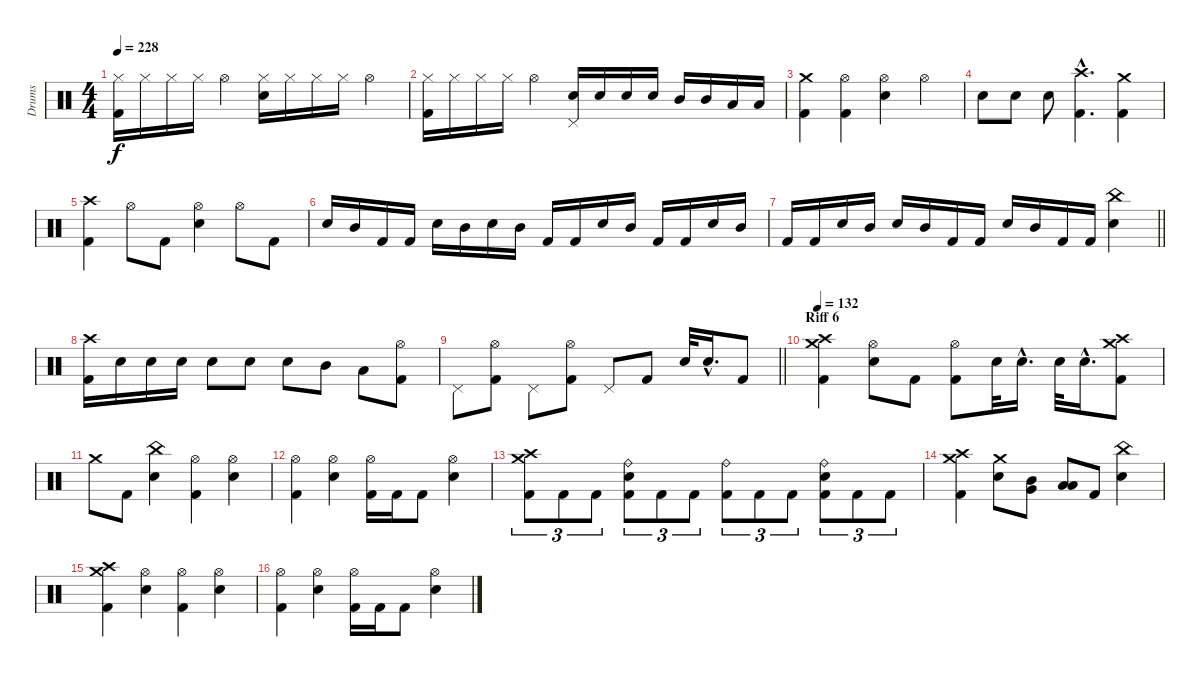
\track ("Drums" "Drums") {instrument percussion}
\staff {score}
\articulation defaults
\ts (4 4)
\tempo 228
\clef neutral
\ks c
("Hi-Hat (closed)" "Kick (hit) 2").16{dy f} "Hi-Hat (closed)".16 "Hi-Hat (closed)".16 "Hi-Hat (closed)".16 "Hi-Hat (open)".4 ("Hi-Hat (closed)" "Electric Snare (hit)").16 "Hi-Hat (closed)".16 "Hi-Hat (closed)".16 "Hi-Hat (closed)".16 "Hi-Hat (open)".4 |
("Hi-Hat (closed)" "Kick (hit) 2").16 "Hi-Hat (closed)".16 "Hi-Hat (closed)".16 "Hi-Hat (closed)".16 "Hi-Hat (open)".4 ("Pedal Hi-Hat (hit)" "Electric Snare (hit)").16 "Electric Snare (hit)".16 "Electric Snare (hit)".16 "Electric Snare (hit)".16 "Mid Tom (hit)".16 "Mid Tom (hit)".16 "Low Tom (hit)".16 "Low Tom (hit)".16 |
("Crash medium (hit)" "Kick (hit) 2").4 ("Hi-Hat (open)" "Kick (hit) 2").4 ("Hi-Hat (open)" "Electric Snare (hit)").4 "Hi-Hat (open)".4 |
"Electric Snare (hit)".8 "Electric Snare (hit)".8 "Electric Snare (hit)".8 ("Crash high (hit)"{hac} "Kick (hit) 2"{hac}).4{d} ("Crash medium (hit)" "Kick (hit) 2").4 |
("Crash high (hit)" "Kick (hit) 2").4 "Hi-Hat (open)".8 "Kick (hit) 2".8 ("Hi-Hat (open)" "Electric Snare (hit)").4 "Hi-Hat (open)".8 "Kick (hit) 2".8 |
"Electric Snare (hit)".16 "Mid Tom (hit)".16 "Kick (hit) 2".16 "Kick (hit) 2".16 "Electric Snare (hit)".16 "Mid Tom (hit)".16 "Electric Snare (hit)".16 "Mid Tom (hit)".16 "Kick (hit) 2".16 "Kick (hit) 2".16 "Electric Snare (hit)".16 "Mid Tom (hit)".16 "Kick (hit) 2".16 "Kick (hit) 2".16 "Electric Snare (hit)".16 "Mid Tom (hit)".16 |
\barLineRight lightlight "Kick (hit) 2".16 "Kick (hit) 2".16 "Electric Snare (hit)".16 "Mid Tom (hit)".16 "Electric Snare (hit)".16 "Mid Tom (hit)".16 "Kick (hit) 2".16 "Kick (hit) 2".16 "Electric Snare (hit)".16 "Mid Tom (hit)".16 "Kick (hit) 2".16 "Kick (hit) 2".16
("China (hit)" "Electric Snare (hit)").4 |
("Crash high (hit)" "Kick (hit) 2").16 "Electric Snare (hit)".16 "Electric Snare (hit)".16 "Electric Snare (hit)".16 "Electric Snare (hit)".8 "Electric Snare (hit)".8 "Electric Snare (hit)".8 "Mid Tom (hit)".8 "Low Tom (hit)".8 ("Hi-Hat (open)" "Kick (hit) 2").8 |
\barLineRight lightlight "Pedal Hi-Hat (hit)".8
("Hi-Hat (open)" "Kick (hit) 2").8 "Pedal Hi-Hat (hit)".8 ("Hi-Hat (open)" "Kick (hit) 2").8 "Pedal Hi-Hat (hit)".8 "Kick (hit) 2".8 "Electric Snare (hit)".32 "Electric Snare (hit)"{hac}.16{d} "Kick (hit) 2".8 |
\section ("" "Riff 6")
\tempo 132
("Crash medium (hit)" "Crash high (hit)" "Kick (hit) 2").4 ("Hi-Hat (open)" "Electric Snare (hit)").8 "Kick (hit) 2".8 ("Hi-Hat (open)" "Kick (hit) 2").8 "Electric Snare (hit)".32 "Electric Snare (hit)"{hac}.16{d} "Electric Snare (hit)".32 "Electric Snare (hit)"{hac}.16{d} ("Crash medium (hit)" "Crash high (hit)" "Kick (hit) 2").8 |
"Crash medium (hit)".8 "Kick (hit) 2".8 ("China (hit)" "Electric Snare (hit)").4 ("Hi-Hat (open)" "Kick (hit) 2").4 ("Hi-Hat (open)" "Electric Snare (hit)").4 |
("Hi-Hat (open)" "Kick (hit) 2").4 ("Hi-Hat (open)" "Electric Snare (hit)").4 ("Hi-Hat (open)" "Kick (hit) 2").16 "Kick (hit) 2".16 "Kick (hit) 2".8 ("Hi-Hat (open)" "Electric Snare (hit)").4 |
("Crash medium (hit)" "Crash high (hit)" "Kick (hit) 2").8{tu (3 2)} "Kick (hit) 2".8{tu (3 2)} "Kick (hit) 2".8{tu (3 2)} ("Ride (bell)" "Electric Snare (hit)" "Kick (hit) 2").8{tu (3 2)} "Kick (hit) 2".8{tu (3 2)} "Kick (hit) 2".8{tu (3 2)} ("Ride (bell)" "Kick (hit) 2").8{tu (3 2)} "Kick (hit) 2".8{tu (3 2)} "Kick (hit) 2".8{tu (3 2)} ("Ride (bell)" "Electric Snare (hit)" "Kick (hit) 2").8{tu (3 2)} "Kick (hit) 2".8{tu (3 2)} "Kick (hit) 2".8{tu (3 2)} |
("Crash medium (hit)" "Crash high (hit)" "Kick (hit) 2").4 ("Crash medium (hit)" "Electric Snare (hit)").8 ("Mid Tom (hit)" "Very Low Tom (hit)").8 ("Low Tom (hit)" "Low Floor Tom (hit)").8 "Kick (hit) 2".8 ("China (hit)" "Electric Snare (hit)").4 |
("Crash medium (hit)" "Crash high (hit)" "Kick (hit) 2").4 ("Hi-Hat (open)" "Electric Snare (hit)").4 ("Hi-Hat (open)" "Kick (hit) 2").4 ("Hi-Hat (open)" "Electric Snare (hit)").4 |
("Hi-Hat (open)" "Kick (hit) 2").4 ("Hi-Hat (open)" "Electric Snare (hit)").4 ("Hi-Hat (open)" "Kick (hit) 2").16 "Kick (hit) 2".16 "Kick (hit) 2".8 ("Hi-Hat (open)" "Electric Snare (hit)").4
